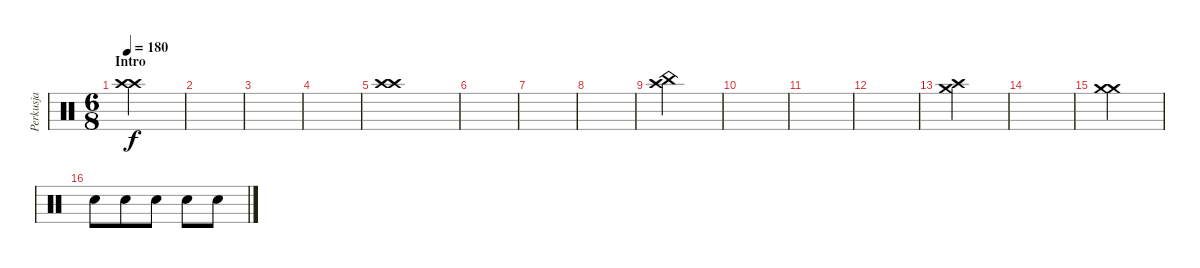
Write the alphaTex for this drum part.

\track ("Perkusja" "Perkusja") {instrument percussion}
\staff {score}
\articulation defaults
\ts (6 8)
\section ("" "Intro")
\tempo 180
\clef neutral
\ks c
("Crash high (hit)" "Crash high (hit)").4{dy f} |
|
|
|
("Crash high (hit)" "Crash high (hit)").1 |
|
|
|
("Crash high (hit)" "China (hit)").4 |
|
|
|
("Crash medium (hit)" "Crash high (hit)").4 |
|
("Crash medium (hit)" "Crash medium (hit)").4 |
"Snare (hit) 2".8 "Snare (hit) 2".8 "Snare (hit) 2".8 "Snare (hit) 2".8 "Snare (hit) 2".8
